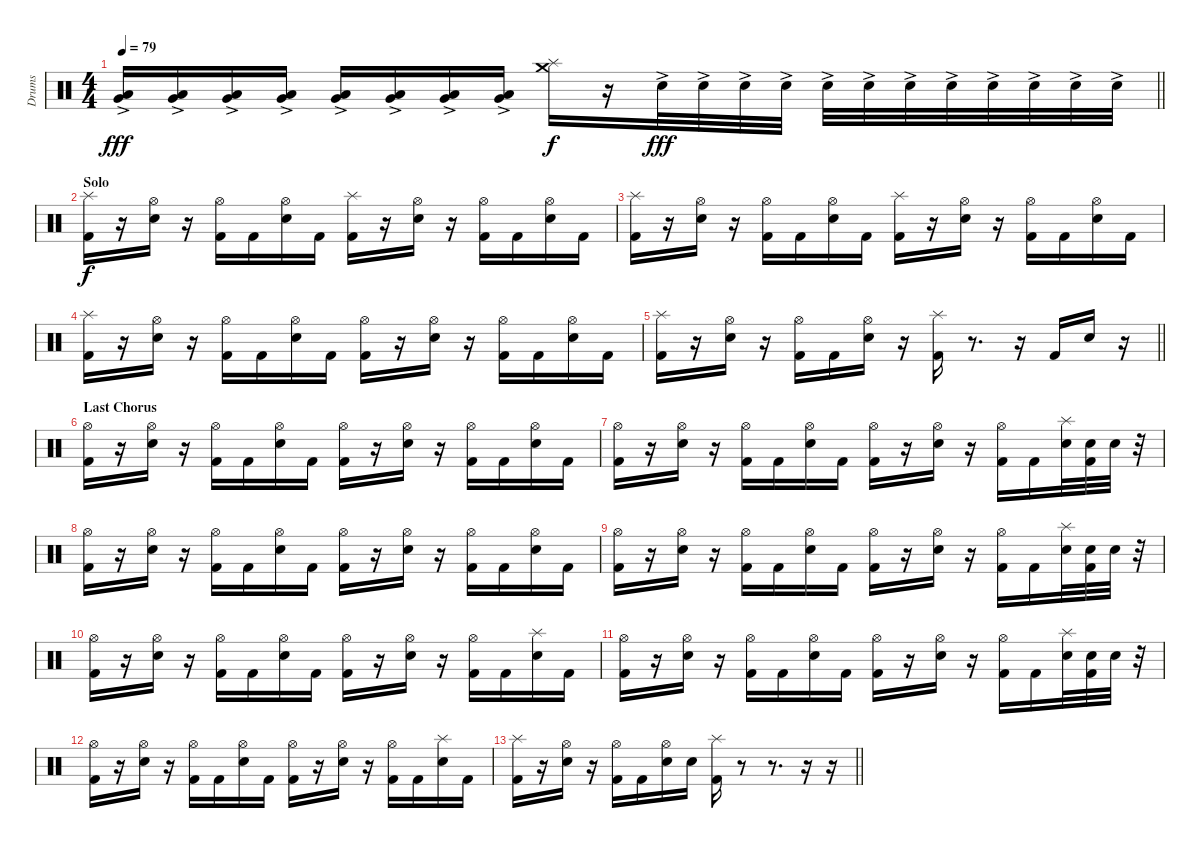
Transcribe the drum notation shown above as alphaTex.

\track ("Drums" "Drums") {instrument percussion}
\staff {score}
\articulation defaults
\ts (4 4)
\tempo 79
\clef neutral
\barLineRight lightlight
\ks c
("Very Low Tom (hit)"{ac} "Low Floor Tom (hit)"{ac}).16{dy fff} ("Very Low Tom (hit)"{ac} "Low Floor Tom (hit)"{ac}).16 ("Very Low Tom (hit)"{ac} "Low Floor Tom (hit)"{ac}).16 ("Very Low Tom (hit)"{ac} "Low Floor Tom (hit)"{ac}).16 ("Very Low Tom (hit)"{ac} "Low Floor Tom (hit)"{ac}).16 ("Very Low Tom (hit)"{ac} "Low Floor Tom (hit)"{ac}).16 ("Very Low Tom (hit)"{ac} "Low Floor Tom (hit)"{ac}).16 ("Very Low Tom (hit)"{ac} "Low Floor Tom (hit)"{ac}).16 ("Splash (hit)" "Crash medium (hit)").16{dy f} r.16 "Electric Snare (hit)"{ac}.32{dy fff} "Electric Snare (hit)"{ac}.32 "Electric Snare (hit)"{ac}.32 "Electric Snare (hit)"{ac}.32 "Electric Snare (hit)"{ac}.32 "Electric Snare (hit)"{ac}.32 "Electric Snare (hit)"{ac}.32 "Electric Snare (hit)"{ac}.32 "Electric Snare (hit)"{ac}.32 "Electric Snare (hit)"{ac}.32 "Electric Snare (hit)"{ac}.32 "Electric Snare (hit)"{ac}.32 |
\section ("" "Solo")
("Splash (hit)" "Kick (hit) 2").16{dy f} r.16 ("Hi-Hat (open)" "Electric Snare (hit)").16 r.16 ("Hi-Hat (open)" "Kick (hit) 2").16 "Kick (hit) 2".16 ("Hi-Hat (open)" "Electric Snare (hit)").16 "Kick (hit) 2".16 ("Splash (hit)" "Kick (hit) 2").16 r.16 ("Hi-Hat (open)" "Electric Snare (hit)").16 r.16 ("Hi-Hat (open)" "Kick (hit) 2").16 "Kick (hit) 2".16 ("Hi-Hat (open)" "Electric Snare (hit)").16 "Kick (hit) 2".16 |
("Splash (hit)" "Kick (hit) 2").16 r.16 ("Hi-Hat (open)" "Electric Snare (hit)").16 r.16 ("Hi-Hat (open)" "Kick (hit) 2").16 "Kick (hit) 2".16 ("Hi-Hat (open)" "Electric Snare (hit)").16 "Kick (hit) 2".16 ("Splash (hit)" "Kick (hit) 2").16 r.16 ("Hi-Hat (open)" "Electric Snare (hit)").16 r.16 ("Hi-Hat (open)" "Kick (hit) 2").16 "Kick (hit) 2".16 ("Hi-Hat (open)" "Electric Snare (hit)").16 "Kick (hit) 2".16 |
("Splash (hit)" "Kick (hit) 2").16 r.16 ("Hi-Hat (open)" "Electric Snare (hit)").16 r.16 ("Hi-Hat (open)" "Kick (hit) 2").16 "Kick (hit) 2".16 ("Hi-Hat (open)" "Electric Snare (hit)").16 "Kick (hit) 2".16 ("Hi-Hat (open)" "Kick (hit) 2").16 r.16 ("Hi-Hat (open)" "Electric Snare (hit)").16 r.16 ("Hi-Hat (open)" "Kick (hit) 2").16 "Kick (hit) 2".16 ("Hi-Hat (open)" "Electric Snare (hit)").16 "Kick (hit) 2".16 |
\barLineRight lightlight
("Splash (hit)" "Kick (hit) 2").16 r.16 ("Hi-Hat (open)" "Electric Snare (hit)").16 r.16 ("Hi-Hat (open)" "Kick (hit) 2").16 "Kick (hit) 2".16 ("Hi-Hat (open)" "Electric Snare (hit)").16 r.16 ("Splash (hit)" "Kick (hit) 2").16 r.8{d} r.16 "Kick (hit) 2".16 "Electric Snare (hit)".16 r.16 |
\section ("" "Last Chorus")
("Hi-Hat (open)" "Kick (hit) 2").16 r.16 ("Hi-Hat (open)" "Electric Snare (hit)").16 r.16 ("Hi-Hat (open)" "Kick (hit) 2").16 "Kick (hit) 2".16 ("Hi-Hat (open)" "Electric Snare (hit)").16 "Kick (hit) 2".16 ("Hi-Hat (open)" "Kick (hit) 2").16 r.16 ("Hi-Hat (open)" "Electric Snare (hit)").16 r.16 ("Hi-Hat (open)" "Kick (hit) 2").16 "Kick (hit) 2".16 ("Hi-Hat (open)" "Electric Snare (hit)").16 "Kick (hit) 2".16 |
("Hi-Hat (open)" "Kick (hit) 2").16 r.16 ("Hi-Hat (open)" "Electric Snare (hit)").16 r.16 ("Hi-Hat (open)" "Kick (hit) 2").16 "Kick (hit) 2".16 ("Hi-Hat (open)" "Electric Snare (hit)").16 "Kick (hit) 2".16 ("Hi-Hat (open)" "Kick (hit) 2").16 r.16 ("Hi-Hat (open)" "Electric Snare (hit)").16 r.16 ("Hi-Hat (open)" "Kick (hit) 2").16 "Kick (hit) 2".16 ("Splash (hit)" "Electric Snare (hit)").32 ("Electric Snare (hit)" "Kick (hit) 2").32 "Electric Snare (hit)".32 r.32 |
("Hi-Hat (open)" "Kick (hit) 2").16 r.16 ("Hi-Hat (open)" "Electric Snare (hit)").16 r.16 ("Hi-Hat (open)" "Kick (hit) 2").16 "Kick (hit) 2".16 ("Hi-Hat (open)" "Electric Snare (hit)").16 "Kick (hit) 2".16 ("Hi-Hat (open)" "Kick (hit) 2").16 r.16 ("Hi-Hat (open)" "Electric Snare (hit)").16 r.16 ("Hi-Hat (open)" "Kick (hit) 2").16 "Kick (hit) 2".16 ("Hi-Hat (open)" "Electric Snare (hit)").16 "Kick (hit) 2".16 |
("Hi-Hat (open)" "Kick (hit) 2").16 r.16 ("Hi-Hat (open)" "Electric Snare (hit)").16 r.16 ("Hi-Hat (open)" "Kick (hit) 2").16 "Kick (hit) 2".16 ("Hi-Hat (open)" "Electric Snare (hit)").16 "Kick (hit) 2".16 ("Hi-Hat (open)" "Kick (hit) 2").16 r.16 ("Hi-Hat (open)" "Electric Snare (hit)").16 r.16 ("Hi-Hat (open)" "Kick (hit) 2").16 "Kick (hit) 2".16 ("Splash (hit)" "Electric Snare (hit)").32 ("Electric Snare (hit)" "Kick (hit) 2").32 "Electric Snare (hit)".32 r.32 |
("Hi-Hat (open)" "Kick (hit) 2").16 r.16 ("Hi-Hat (open)" "Electric Snare (hit)").16 r.16 ("Hi-Hat (open)" "Kick (hit) 2").16 "Kick (hit) 2".16 ("Hi-Hat (open)" "Electric Snare (hit)").16 "Kick (hit) 2".16 ("Hi-Hat (open)" "Kick (hit) 2").16 r.16 ("Hi-Hat (open)" "Electric Snare (hit)").16 r.16 ("Hi-Hat (open)" "Kick (hit) 2").16 "Kick (hit) 2".16 ("Splash (hit)" "Electric Snare (hit)").16 "Kick (hit) 2".16 |
("Hi-Hat (open)" "Kick (hit) 2").16 r.16 ("Hi-Hat (open)" "Electric Snare (hit)").16 r.16 ("Hi-Hat (open)" "Kick (hit) 2").16 "Kick (hit) 2".16 ("Hi-Hat (open)" "Electric Snare (hit)").16 "Kick (hit) 2".16 ("Hi-Hat (open)" "Kick (hit) 2").16 r.16 ("Hi-Hat (open)" "Electric Snare (hit)").16 r.16 ("Hi-Hat (open)" "Kick (hit) 2").16 "Kick (hit) 2".16 ("Splash (hit)" "Electric Snare (hit)").32 ("Electric Snare (hit)" "Kick (hit) 2").32 "Electric Snare (hit)".32 r.32 |
("Hi-Hat (open)" "Kick (hit) 2").16 r.16 ("Hi-Hat (open)" "Electric Snare (hit)").16 r.16 ("Hi-Hat (open)" "Kick (hit) 2").16 "Kick (hit) 2".16 ("Hi-Hat (open)" "Electric Snare (hit)").16 "Kick (hit) 2".16 ("Hi-Hat (open)" "Kick (hit) 2").16 r.16 ("Hi-Hat (open)" "Electric Snare (hit)").16 r.16 ("Hi-Hat (open)" "Kick (hit) 2").16 "Kick (hit) 2".16 ("Splash (hit)" "Electric Snare (hit)").16 "Kick (hit) 2".16 |
\barLineRight lightlight
("Splash (hit)" "Kick (hit) 2").16 r.16 ("Hi-Hat (open)" "Electric Snare (hit)").16 r.16 ("Hi-Hat (open)" "Kick (hit) 2").16 "Kick (hit) 2".16 ("Hi-Hat (open)" "Electric Snare (hit)").16 "Electric Snare (hit)".16 ("Splash (hit)" "Kick (hit) 2").16 r.8 r.8{d} r.16 r.16
